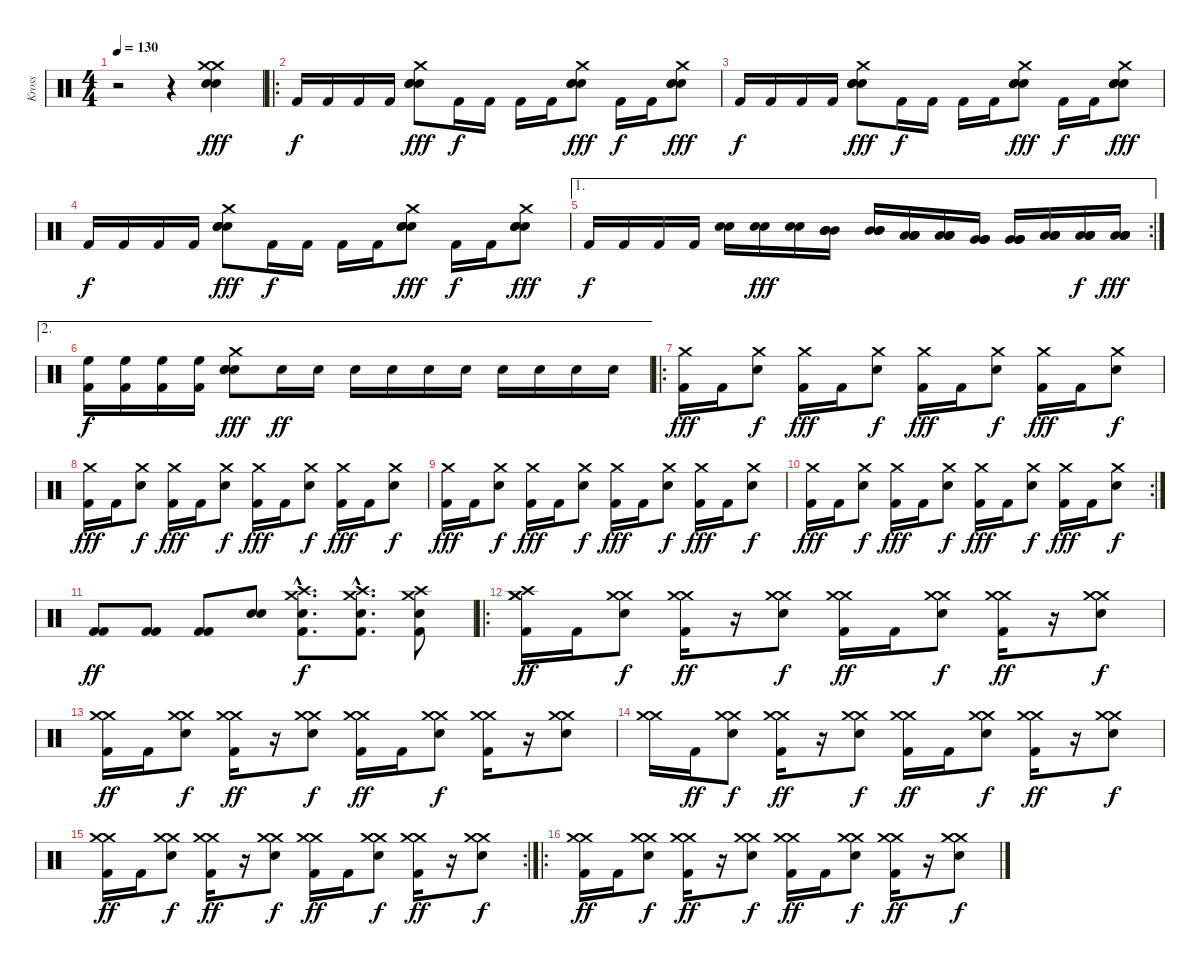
\track ("Kross" "Kross") {instrument percussion}
\staff {score}
\articulation defaults
\ts (4 4)
\tempo 130
\clef neutral
\ks c
r.2{dy fff} r.4 ("Crash medium (hit)" "Crash medium (hit)" "Snare (hit) 2" "Snare (hit) 2").4 |
\ro "Kick (hit) 2".16{dy f} "Kick (hit) 2".16 "Kick (hit) 2".16 "Kick (hit) 2".16
("Crash medium (hit)" "Electric Snare (hit)" "Electric Snare (hit)" "Electric Snare (hit)").8{dy fff} "Kick (hit) 2".16{dy f} "Kick (hit) 2".16 "Kick (hit) 2".16 "Kick (hit) 2".16 ("Crash medium (hit)" "Electric Snare (hit)" "Electric Snare (hit)" "Electric Snare (hit)").8{dy fff} "Kick (hit) 2".16{dy f} "Kick (hit) 2".16 ("Crash medium (hit)" "Electric Snare (hit)" "Electric Snare (hit)" "Electric Snare (hit)").8{dy fff} |
"Kick (hit) 2".16{dy f} "Kick (hit) 2".16 "Kick (hit) 2".16 "Kick (hit) 2".16 ("Crash medium (hit)" "Electric Snare (hit)" "Electric Snare (hit)" "Electric Snare (hit)").8{dy fff} "Kick (hit) 2".16{dy f} "Kick (hit) 2".16 "Kick (hit) 2".16 "Kick (hit) 2".16 ("Crash medium (hit)" "Electric Snare (hit)" "Electric Snare (hit)" "Electric Snare (hit)").8{dy fff} "Kick (hit) 2".16{dy f} "Kick (hit) 2".16 ("Crash medium (hit)" "Electric Snare (hit)" "Electric Snare (hit)" "Electric Snare (hit)").8{dy fff} |
"Kick (hit) 2".16{dy f} "Kick (hit) 2".16 "Kick (hit) 2".16 "Kick (hit) 2".16 ("Crash medium (hit)" "Electric Snare (hit)" "Electric Snare (hit)" "Electric Snare (hit)").8{dy fff} "Kick (hit) 2".16{dy f} "Kick (hit) 2".16 "Kick (hit) 2".16 "Kick (hit) 2".16 ("Crash medium (hit)" "Electric Snare (hit)" "Electric Snare (hit)" "Electric Snare (hit)").8{dy fff} "Kick (hit) 2".16{dy f} "Kick (hit) 2".16 ("Crash medium (hit)" "Electric Snare (hit)" "Electric Snare (hit)" "Electric Snare (hit)").8{dy fff} |
\ae 1
\rc 2 "Kick (hit) 2".16{dy f} "Kick (hit) 2".16 "Kick (hit) 2".16 "Kick (hit) 2".16
("Electric Snare (hit)" "Electric Snare (hit)").16 ("Electric Snare (hit)" "Electric Snare (hit)").16{dy fff} ("Electric Snare (hit)" "Electric Snare (hit)").16 ("Mid Tom (hit)" "Mid Tom (hit)" "Mid Tom (hit)" "Mid Tom (hit)").16 ("Mid Tom (hit)" "Mid Tom (hit)" "Mid Tom (hit)" "Mid Tom (hit)").16 ("Low Tom (hit)" "Low Tom (hit)" "Low Tom (hit)" "Low Tom (hit)").16 ("Low Tom (hit)" "Low Tom (hit)" "Low Tom (hit)" "Low Tom (hit)").16 ("Very Low Tom (hit)" "Very Low Tom (hit)" "Very Low Tom (hit)" "Very Low Tom (hit)").16 ("Very Low Tom (hit)" "Very Low Tom (hit)" "Very Low Tom (hit)" "Very Low Tom (hit)").16 ("Low Floor Tom (hit)" "Low Floor Tom (hit)" "Low Floor Tom (hit)" "Low Floor Tom (hit)").16 ("Low Floor Tom (hit)" "Low Floor Tom (hit)" "Low Floor Tom (hit)" "Low Floor Tom (hit)").16{dy f} ("Low Floor Tom (hit)" "Low Floor Tom (hit)" "Low Floor Tom (hit)" "Low Floor Tom (hit)").16{dy fff} |
\ae 2
("High Floor Tom (hit)" "Kick (hit) 2").16{dy f} ("High Floor Tom (hit)" "Kick (hit) 2").16 ("High Floor Tom (hit)" "Kick (hit) 2").16 ("High Floor Tom (hit)" "Kick (hit) 2").16 ("Crash medium (hit)" "Electric Snare (hit)" "Electric Snare (hit)" "Electric Snare (hit)").8{dy fff} "Electric Snare (hit)".16{dy ff} "Electric Snare (hit)".16 "Electric Snare (hit)".16 "Electric Snare (hit)".16 "Electric Snare (hit)".16 "Electric Snare (hit)".16 "Electric Snare (hit)".16 "Electric Snare (hit)".16 "Electric Snare (hit)".16 "Electric Snare (hit)".16 |
\ro
("Kick (hit) 2" "Crash medium (hit)").16{dy fff} "Kick (hit) 2".16 ("Crash medium (hit)" "Electric Snare (hit)").8{dy f} ("Kick (hit) 2" "Crash medium (hit)").16{dy fff} "Kick (hit) 2".16 ("Crash medium (hit)" "Electric Snare (hit)").8{dy f} ("Kick (hit) 2" "Crash medium (hit)").16{dy fff} "Kick (hit) 2".16 ("Crash medium (hit)" "Electric Snare (hit)").8{dy f} ("Kick (hit) 2" "Crash medium (hit)").16{dy fff} "Kick (hit) 2".16 ("Crash medium (hit)" "Electric Snare (hit)").8{dy f} |
("Kick (hit) 2" "Crash medium (hit)").16{dy fff} "Kick (hit) 2".16 ("Crash medium (hit)" "Electric Snare (hit)").8{dy f} ("Kick (hit) 2" "Crash medium (hit)").16{dy fff} "Kick (hit) 2".16 ("Crash medium (hit)" "Electric Snare (hit)").8{dy f} ("Kick (hit) 2" "Crash medium (hit)").16{dy fff} "Kick (hit) 2".16 ("Crash medium (hit)" "Electric Snare (hit)").8{dy f} ("Kick (hit) 2" "Crash medium (hit)").16{dy fff} "Kick (hit) 2".16 ("Crash medium (hit)" "Electric Snare (hit)").8{dy f} |
("Kick (hit) 2" "Crash medium (hit)").16{dy fff} "Kick (hit) 2".16 ("Crash medium (hit)" "Electric Snare (hit)").8{dy f} ("Kick (hit) 2" "Crash medium (hit)").16{dy fff} "Kick (hit) 2".16 ("Crash medium (hit)" "Electric Snare (hit)").8{dy f} ("Kick (hit) 2" "Crash medium (hit)").16{dy fff} "Kick (hit) 2".16 ("Crash medium (hit)" "Electric Snare (hit)").8{dy f} ("Kick (hit) 2" "Crash medium (hit)").16{dy fff} "Kick (hit) 2".16 ("Crash medium (hit)" "Electric Snare (hit)").8{dy f} |
\rc 2
("Kick (hit) 2" "Crash medium (hit)").16{dy fff} "Kick (hit) 2".16 ("Crash medium (hit)" "Electric Snare (hit)").8{dy f} ("Kick (hit) 2" "Crash medium (hit)").16{dy fff} "Kick (hit) 2".16 ("Crash medium (hit)" "Electric Snare (hit)").8{dy f} ("Kick (hit) 2" "Crash medium (hit)").16{dy fff} "Kick (hit) 2".16 ("Crash medium (hit)" "Electric Snare (hit)").8{dy f} ("Kick (hit) 2" "Crash medium (hit)").16{dy fff} "Kick (hit) 2".16 ("Crash medium (hit)" "Electric Snare (hit)").8{dy f} |
("Kick (hit) 2" "Kick (hit) 2").8{dy ff} ("Kick (hit) 2" "Kick (hit) 2").8 ("Kick (hit) 2" "Kick (hit) 2").8 ("Electric Snare (hit)" "Electric Snare (hit)").8 ("Kick (hit) 2"{hac} "Crash high (hit)"{hac} "Crash medium (hit)"{hac} "Electric Snare (hit)"{hac}).8{d dy f} ("Kick (hit) 2"{hac} "Crash high (hit)"{hac} "Crash medium (hit)"{hac} "Electric Snare (hit)"{hac}).8{d} ("Kick (hit) 2" "Crash high (hit)" "Crash medium (hit)" "Electric Snare (hit)").8 |
\ro
("Crash high (hit)" "Kick (hit) 2" "Crash medium (hit)" "Crash medium (hit)").16{dy ff} "Kick (hit) 2".16 ("Crash medium (hit)" "Crash medium (hit)" "Electric Snare (hit)").8{dy f} ("Kick (hit) 2" "Crash medium (hit)" "Crash medium (hit)").16{dy ff} r.16 ("Crash medium (hit)" "Crash medium (hit)" "Electric Snare (hit)").8{dy f} ("Kick (hit) 2" "Crash medium (hit)" "Crash medium (hit)").16{dy ff} "Kick (hit) 2".16 ("Crash medium (hit)" "Crash medium (hit)" "Electric Snare (hit)").8{dy f} ("Kick (hit) 2" "Crash medium (hit)" "Crash medium (hit)").16{dy ff} r.16 ("Crash medium (hit)" "Crash medium (hit)" "Electric Snare (hit)").8{dy f} |
("Kick (hit) 2" "Crash medium (hit)" "Crash medium (hit)").16{dy ff} "Kick (hit) 2".16 ("Crash medium (hit)" "Crash medium (hit)" "Electric Snare (hit)").8{dy f} ("Kick (hit) 2" "Crash medium (hit)" "Crash medium (hit)").16{dy ff} r.16 ("Crash medium (hit)" "Crash medium (hit)" "Electric Snare (hit)").8{dy f} ("Kick (hit) 2" "Crash medium (hit)" "Crash medium (hit)").16{dy ff} "Kick (hit) 2".16 ("Crash medium (hit)" "Crash medium (hit)" "Electric Snare (hit)").8{dy f} ("Kick (hit) 2" "Crash medium (hit)" "Crash medium (hit)").16 r.16 ("Crash medium (hit)" "Crash medium (hit)" "Electric Snare (hit)").8 |
("Crash medium (hit)" "Crash medium (hit)").16 "Kick (hit) 2".16{dy ff} ("Crash medium (hit)" "Crash medium (hit)" "Electric Snare (hit)").8{dy f} ("Kick (hit) 2" "Crash medium (hit)" "Crash medium (hit)").16{dy ff} r.16 ("Crash medium (hit)" "Crash medium (hit)" "Electric Snare (hit)").8{dy f} ("Kick (hit) 2" "Crash medium (hit)" "Crash medium (hit)").16{dy ff} "Kick (hit) 2".16 ("Crash medium (hit)" "Crash medium (hit)" "Electric Snare (hit)").8{dy f} ("Kick (hit) 2" "Crash medium (hit)" "Crash medium (hit)").16{dy ff} r.16 ("Crash medium (hit)" "Crash medium (hit)" "Electric Snare (hit)").8{dy f} |
\rc 2
("Kick (hit) 2" "Crash medium (hit)" "Crash medium (hit)").16{dy ff} "Kick (hit) 2".16 ("Crash medium (hit)" "Crash medium (hit)" "Electric Snare (hit)").8{dy f} ("Kick (hit) 2" "Crash medium (hit)" "Crash medium (hit)").16{dy ff} r.16 ("Crash medium (hit)" "Crash medium (hit)" "Electric Snare (hit)").8{dy f} ("Kick (hit) 2" "Crash medium (hit)" "Crash medium (hit)").16{dy ff} "Kick (hit) 2".16 ("Crash medium (hit)" "Crash medium (hit)" "Electric Snare (hit)").8{dy f} ("Kick (hit) 2" "Crash medium (hit)" "Crash medium (hit)").16{dy ff} r.16 ("Crash medium (hit)" "Crash medium (hit)" "Electric Snare (hit)").8{dy f} |
\ro
("Kick (hit) 2" "Crash medium (hit)" "Crash medium (hit)").16{dy ff} "Kick (hit) 2".16 ("Crash medium (hit)" "Crash medium (hit)" "Electric Snare (hit)").8{dy f} ("Kick (hit) 2" "Crash medium (hit)" "Crash medium (hit)").16{dy ff} r.16 ("Crash medium (hit)" "Crash medium (hit)" "Electric Snare (hit)").8{dy f} ("Kick (hit) 2" "Crash medium (hit)" "Crash medium (hit)").16{dy ff} "Kick (hit) 2".16 ("Crash medium (hit)" "Crash medium (hit)" "Electric Snare (hit)").8{dy f} ("Kick (hit) 2" "Crash medium (hit)" "Crash medium (hit)").16{dy ff} r.16 ("Crash medium (hit)" "Crash medium (hit)" "Electric Snare (hit)").8{dy f}
